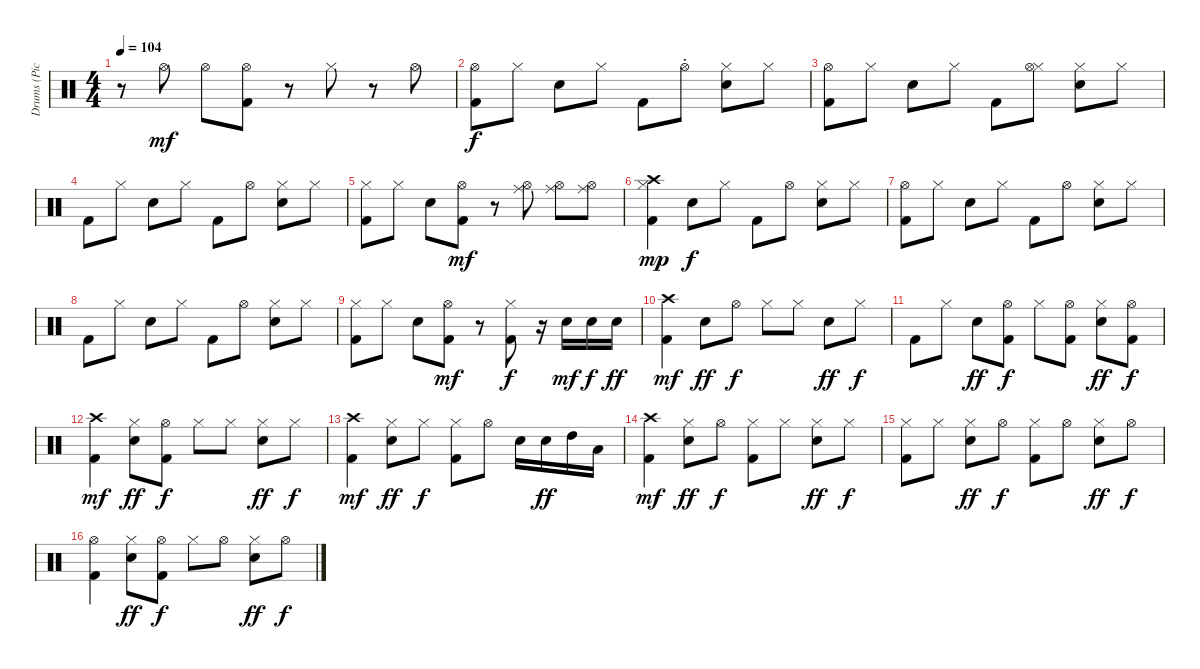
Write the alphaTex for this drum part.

\track ("Drums (Pick Whiters)" "Drums (Pic") {instrument percussion}
\staff {score}
\articulation defaults
\ts (4 4)
\tempo 104
\clef neutral
\ks c
r.8{dy mf} "Hi-Hat (open)".8 "Hi-Hat (open)".8 ("Hi-Hat (open)" "Kick (hit) 2").8 r.8 "Hi-Hat (closed)".8 r.8 "Hi-Hat (open)".8 |
("Hi-Hat (open)" "Kick (hit) 2").8{dy f} "Hi-Hat (closed)".8 "Snare (hit) 2".8 "Hi-Hat (closed)".8 "Kick (hit) 2".8 "Hi-Hat (open)"{st}.8 ("Snare (hit) 2" "Hi-Hat (closed)").8 "Hi-Hat (closed)".8 |
("Kick (hit) 2" "Hi-Hat (open)").8 "Hi-Hat (closed)".8 "Snare (hit) 2".8 "Hi-Hat (closed)".8 "Kick (hit) 2".8 ("Hi-Hat (closed)" "Hi-Hat (open)").8 ("Snare (hit) 2" "Hi-Hat (closed)").8 "Hi-Hat (closed)".8 |
"Kick (hit) 2".8 "Hi-Hat (closed)".8 "Snare (hit) 2".8 "Hi-Hat (closed)".8 "Kick (hit) 2".8 "Hi-Hat (open)".8 ("Snare (hit) 2" "Hi-Hat (closed)").8 "Hi-Hat (closed)".8 |
("Kick (hit) 2" "Hi-Hat (closed)").8 "Hi-Hat (closed)".8 "Snare (hit) 2".8 ("Kick (hit) 2" "Hi-Hat (open)").8{dy mf} r.8 ("Hi-Hat (open)" "Ride (middle)").8 ("Hi-Hat (open)" "Ride (middle)").8 ("Hi-Hat (open)" "Ride (middle)").8 |
("Crash high (hit)" "Kick (hit) 2" "Hi-Hat (closed)").4{dy mp} "Snare (hit) 2".8{dy f} "Hi-Hat (closed)".8 "Kick (hit) 2".8 "Hi-Hat (open)".8 ("Snare (hit) 2" "Hi-Hat (closed)").8 "Hi-Hat (closed)".8 |
("Kick (hit) 2" "Hi-Hat (open)").8 "Hi-Hat (closed)".8 "Snare (hit) 2".8 "Hi-Hat (closed)".8 "Kick (hit) 2".8 "Hi-Hat (open)".8 ("Snare (hit) 2" "Hi-Hat (closed)").8 "Hi-Hat (closed)".8 |
"Kick (hit) 2".8 "Hi-Hat (closed)".8 "Snare (hit) 2".8 "Hi-Hat (closed)".8 "Kick (hit) 2".8 "Hi-Hat (open)".8 ("Snare (hit) 2" "Hi-Hat (closed)").8 "Hi-Hat (closed)".8 |
("Kick (hit) 2" "Hi-Hat (closed)").8 "Hi-Hat (closed)".8 "Snare (hit) 2".8 ("Kick (hit) 2" "Hi-Hat (open)").8{dy mf} r.8 ("Hi-Hat (closed)" "Kick (hit) 2").8{dy f} r.16 "Snare (hit) 2".16{dy mf} "Snare (hit) 2".16{dy f} "Snare (hit) 2".16{dy ff} |
("Kick (hit) 2" "Crash high (hit)").4{dy mf} "Snare (hit) 2".8{dy ff} "Hi-Hat (open)".8{dy f} "Hi-Hat (closed)".8 "Hi-Hat (closed)".8 "Snare (hit) 2".8{dy ff} "Hi-Hat (closed)".8{dy f} |
"Kick (hit) 2".8 "Hi-Hat (closed)".8 "Snare (hit) 2".8{dy ff} ("Hi-Hat (open)" "Kick (hit) 2").8{dy f} "Hi-Hat (closed)".8 ("Hi-Hat (open)" "Kick (hit) 2").8 ("Snare (hit) 2" "Hi-Hat (closed)").8{dy ff} ("Kick (hit) 2" "Hi-Hat (open)").8{dy f} |
("Crash high (hit)" "Kick (hit) 2").4{dy mf} ("Snare (hit) 2" "Hi-Hat (closed)").8{dy ff} ("Kick (hit) 2" "Hi-Hat (open)").8{dy f} "Hi-Hat (closed)".8 "Hi-Hat (closed)".8 ("Snare (hit) 2" "Hi-Hat (closed)").8{dy ff} "Hi-Hat (closed)".8{dy f} |
("Crash high (hit)" "Kick (hit) 2").4{dy mf} ("Hi-Hat (closed)" "Snare (hit) 2").8{dy ff} "Hi-Hat (closed)".8{dy f} ("Kick (hit) 2" "Hi-Hat (closed)").8 "Hi-Hat (open)".8 "Snare (hit) 2".16 "Snare (hit) 2".16{dy ff} "High Tom (hit)".16 "Low Tom (hit)".16 |
("Kick (hit) 2" "Crash high (hit)").4{dy mf} ("Snare (hit) 2" "Hi-Hat (closed)").8{dy ff} "Hi-Hat (open)".8{dy f} ("Kick (hit) 2" "Hi-Hat (closed)").8 "Hi-Hat (closed)".8 ("Snare (hit) 2" "Hi-Hat (closed)").8{dy ff} "Hi-Hat (closed)".8{dy f} |
("Kick (hit) 2" "Hi-Hat (closed)").8 "Hi-Hat (closed)".8 ("Snare (hit) 2" "Hi-Hat (closed)").8{dy ff} "Hi-Hat (open)".8{dy f} ("Kick (hit) 2" "Hi-Hat (closed)").8 "Hi-Hat (open)".8 ("Snare (hit) 2" "Hi-Hat (closed)").8{dy ff} "Hi-Hat (open)".8{dy f} |
("Kick (hit) 2" "Hi-Hat (open)").4 ("Snare (hit) 2" "Hi-Hat (closed)").8{dy ff} ("Kick (hit) 2" "Hi-Hat (open)").8{dy f} "Hi-Hat (closed)".8 "Hi-Hat (open)".8 ("Snare (hit) 2" "Hi-Hat (closed)").8{dy ff} "Hi-Hat (open)".8{dy f}
